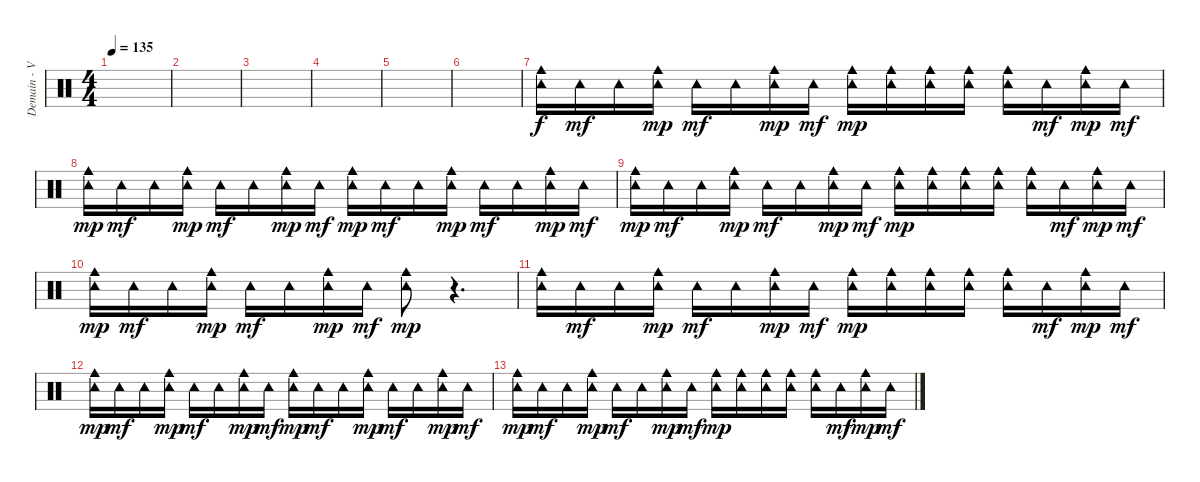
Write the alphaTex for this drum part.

\track ("Demain - Various Perc." "Demain - V") {instrument percussion}
\staff {score}
\articulation defaults
\ts (4 4)
\tempo 135
\clef neutral
\ks c
|
|
|
|
|
|
("Tambourine (hit)" "Cowbell medium (hit)").16 "Tambourine (hit)".16{dy mf} "Tambourine (hit)".16 ("Tambourine (hit)" "Cowbell medium (hit)").16{dy mp} "Tambourine (hit)".16{dy mf} "Tambourine (hit)".16 ("Tambourine (hit)" "Cowbell medium (hit)").16{dy mp} "Tambourine (hit)".16{dy mf} ("Tambourine (hit)" "Cowbell medium (hit)").16{dy mp} ("Tambourine (hit)" "Cowbell medium (hit)").16 ("Tambourine (hit)" "Cowbell medium (hit)").16 ("Tambourine (hit)" "Cowbell medium (hit)").16 ("Tambourine (hit)" "Cowbell medium (hit)").16 "Tambourine (hit)".16{dy mf} ("Tambourine (hit)" "Cowbell medium (hit)").16{dy mp} "Tambourine (hit)".16{dy mf} |
("Tambourine (hit)" "Cowbell medium (hit)").16{dy mp} "Tambourine (hit)".16{dy mf} "Tambourine (hit)".16 ("Tambourine (hit)" "Cowbell medium (hit)").16{dy mp} "Tambourine (hit)".16{dy mf} "Tambourine (hit)".16 ("Tambourine (hit)" "Cowbell medium (hit)").16{dy mp} "Tambourine (hit)".16{dy mf} ("Tambourine (hit)" "Cowbell medium (hit)").16{dy mp} "Tambourine (hit)".16{dy mf} "Tambourine (hit)".16 ("Tambourine (hit)" "Cowbell medium (hit)").16{dy mp} "Tambourine (hit)".16{dy mf} "Tambourine (hit)".16 ("Tambourine (hit)" "Cowbell medium (hit)").16{dy mp} "Tambourine (hit)".16{dy mf} |
("Tambourine (hit)" "Cowbell medium (hit)").16{dy mp} "Tambourine (hit)".16{dy mf} "Tambourine (hit)".16 ("Tambourine (hit)" "Cowbell medium (hit)").16{dy mp} "Tambourine (hit)".16{dy mf} "Tambourine (hit)".16 ("Tambourine (hit)" "Cowbell medium (hit)").16{dy mp} "Tambourine (hit)".16{dy mf} ("Tambourine (hit)" "Cowbell medium (hit)").16{dy mp} ("Tambourine (hit)" "Cowbell medium (hit)").16 ("Tambourine (hit)" "Cowbell medium (hit)").16 ("Tambourine (hit)" "Cowbell medium (hit)").16 ("Tambourine (hit)" "Cowbell medium (hit)").16 "Tambourine (hit)".16{dy mf} ("Tambourine (hit)" "Cowbell medium (hit)").16{dy mp} "Tambourine (hit)".16{dy mf} |
("Tambourine (hit)" "Cowbell medium (hit)").16{dy mp} "Tambourine (hit)".16{dy mf} "Tambourine (hit)".16 ("Tambourine (hit)" "Cowbell medium (hit)").16{dy mp} "Tambourine (hit)".16{dy mf} "Tambourine (hit)".16 ("Tambourine (hit)" "Cowbell medium (hit)").16{dy mp} "Tambourine (hit)".16{dy mf} ("Tambourine (hit)" "Cowbell medium (hit)").8{dy mp} r.4{d} |
("Tambourine (hit)" "Cowbell medium (hit)").16 "Tambourine (hit)".16{dy mf} "Tambourine (hit)".16 ("Tambourine (hit)" "Cowbell medium (hit)").16{dy mp} "Tambourine (hit)".16{dy mf} "Tambourine (hit)".16 ("Tambourine (hit)" "Cowbell medium (hit)").16{dy mp} "Tambourine (hit)".16{dy mf} ("Tambourine (hit)" "Cowbell medium (hit)").16{dy mp} ("Tambourine (hit)" "Cowbell medium (hit)").16 ("Tambourine (hit)" "Cowbell medium (hit)").16 ("Tambourine (hit)" "Cowbell medium (hit)").16 ("Tambourine (hit)" "Cowbell medium (hit)").16 "Tambourine (hit)".16{dy mf} ("Tambourine (hit)" "Cowbell medium (hit)").16{dy mp} "Tambourine (hit)".16{dy mf} |
("Tambourine (hit)" "Cowbell medium (hit)").16{dy mp} "Tambourine (hit)".16{dy mf} "Tambourine (hit)".16 ("Tambourine (hit)" "Cowbell medium (hit)").16{dy mp} "Tambourine (hit)".16{dy mf} "Tambourine (hit)".16 ("Tambourine (hit)" "Cowbell medium (hit)").16{dy mp} "Tambourine (hit)".16{dy mf} ("Tambourine (hit)" "Cowbell medium (hit)").16{dy mp} "Tambourine (hit)".16{dy mf} "Tambourine (hit)".16 ("Tambourine (hit)" "Cowbell medium (hit)").16{dy mp} "Tambourine (hit)".16{dy mf} "Tambourine (hit)".16 ("Tambourine (hit)" "Cowbell medium (hit)").16{dy mp} "Tambourine (hit)".16{dy mf} |
("Tambourine (hit)" "Cowbell medium (hit)").16{dy mp} "Tambourine (hit)".16{dy mf} "Tambourine (hit)".16 ("Tambourine (hit)" "Cowbell medium (hit)").16{dy mp} "Tambourine (hit)".16{dy mf} "Tambourine (hit)".16 ("Tambourine (hit)" "Cowbell medium (hit)").16{dy mp} "Tambourine (hit)".16{dy mf} ("Tambourine (hit)" "Cowbell medium (hit)").16{dy mp} ("Tambourine (hit)" "Cowbell medium (hit)").16 ("Tambourine (hit)" "Cowbell medium (hit)").16 ("Tambourine (hit)" "Cowbell medium (hit)").16 ("Tambourine (hit)" "Cowbell medium (hit)").16 "Tambourine (hit)".16{dy mf} ("Tambourine (hit)" "Cowbell medium (hit)").16{dy mp} "Tambourine (hit)".16{dy mf}
